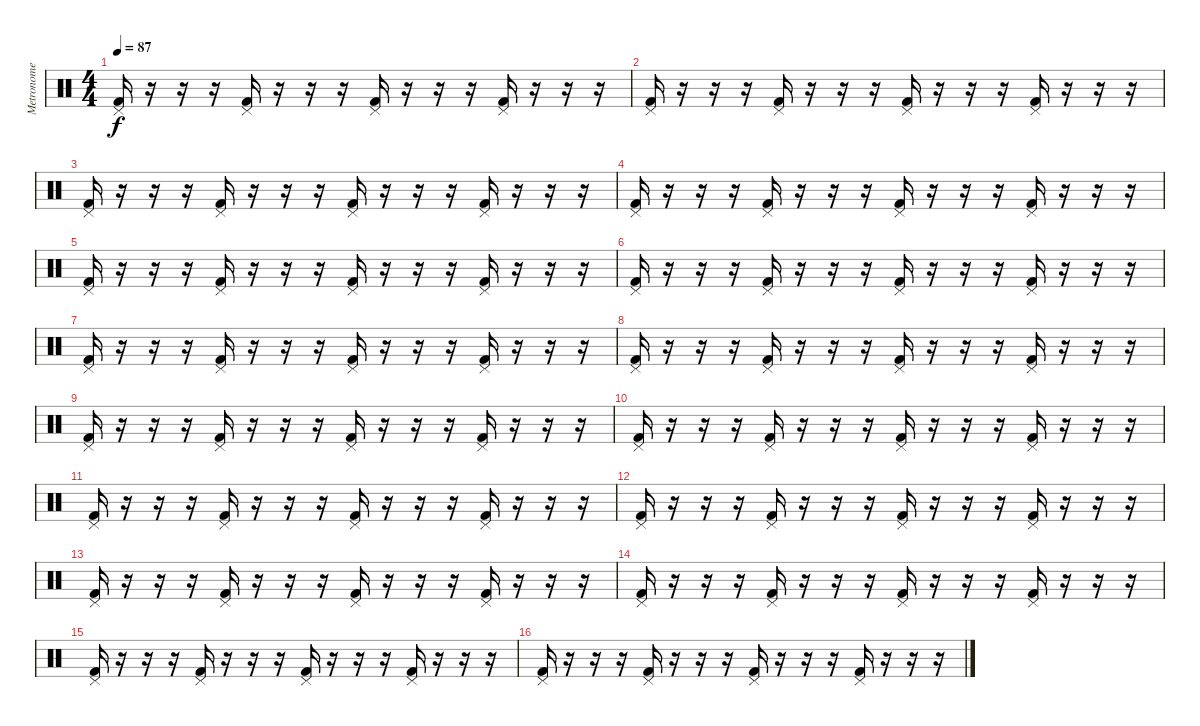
\track ("Metronome" "Metronome") {mute instrument percussion}
\staff {score}
\articulation defaults
\ts (4 4)
\tempo 87
\clef neutral
\ks c
("Pedal Hi-Hat (hit)" "Kick (hit) 2").16{dy f} r.16 r.16 r.16 ("Pedal Hi-Hat (hit)" "Kick (hit) 2").16 r.16 r.16 r.16 ("Pedal Hi-Hat (hit)" "Kick (hit) 2").16 r.16 r.16 r.16 ("Pedal Hi-Hat (hit)" "Kick (hit) 2").16 r.16 r.16 r.16 |
("Pedal Hi-Hat (hit)" "Kick (hit) 2").16 r.16 r.16 r.16 ("Pedal Hi-Hat (hit)" "Kick (hit) 2").16 r.16 r.16 r.16 ("Pedal Hi-Hat (hit)" "Kick (hit) 2").16 r.16 r.16 r.16 ("Pedal Hi-Hat (hit)" "Kick (hit) 2").16 r.16 r.16 r.16 |
("Pedal Hi-Hat (hit)" "Kick (hit) 2").16 r.16 r.16 r.16 ("Pedal Hi-Hat (hit)" "Kick (hit) 2").16 r.16 r.16 r.16 ("Pedal Hi-Hat (hit)" "Kick (hit) 2").16 r.16 r.16 r.16 ("Pedal Hi-Hat (hit)" "Kick (hit) 2").16 r.16 r.16 r.16 |
("Pedal Hi-Hat (hit)" "Kick (hit) 2").16 r.16 r.16 r.16 ("Pedal Hi-Hat (hit)" "Kick (hit) 2").16 r.16 r.16 r.16 ("Pedal Hi-Hat (hit)" "Kick (hit) 2").16 r.16 r.16 r.16 ("Pedal Hi-Hat (hit)" "Kick (hit) 2").16 r.16 r.16 r.16 |
("Pedal Hi-Hat (hit)" "Kick (hit) 2").16 r.16 r.16 r.16 ("Pedal Hi-Hat (hit)" "Kick (hit) 2").16 r.16 r.16 r.16 ("Pedal Hi-Hat (hit)" "Kick (hit) 2").16 r.16 r.16 r.16 ("Pedal Hi-Hat (hit)" "Kick (hit) 2").16 r.16 r.16 r.16 |
("Pedal Hi-Hat (hit)" "Kick (hit) 2").16 r.16 r.16 r.16 ("Pedal Hi-Hat (hit)" "Kick (hit) 2").16 r.16 r.16 r.16 ("Pedal Hi-Hat (hit)" "Kick (hit) 2").16 r.16 r.16 r.16 ("Pedal Hi-Hat (hit)" "Kick (hit) 2").16 r.16 r.16 r.16 |
("Pedal Hi-Hat (hit)" "Kick (hit) 2").16 r.16 r.16 r.16 ("Pedal Hi-Hat (hit)" "Kick (hit) 2").16 r.16 r.16 r.16 ("Pedal Hi-Hat (hit)" "Kick (hit) 2").16 r.16 r.16 r.16 ("Pedal Hi-Hat (hit)" "Kick (hit) 2").16 r.16 r.16 r.16 |
("Pedal Hi-Hat (hit)" "Kick (hit) 2").16 r.16 r.16 r.16 ("Pedal Hi-Hat (hit)" "Kick (hit) 2").16 r.16 r.16 r.16 ("Pedal Hi-Hat (hit)" "Kick (hit) 2").16 r.16 r.16 r.16 ("Pedal Hi-Hat (hit)" "Kick (hit) 2").16 r.16 r.16 r.16 |
("Pedal Hi-Hat (hit)" "Kick (hit) 2").16 r.16 r.16 r.16 ("Pedal Hi-Hat (hit)" "Kick (hit) 2").16 r.16 r.16 r.16 ("Pedal Hi-Hat (hit)" "Kick (hit) 2").16 r.16 r.16 r.16 ("Pedal Hi-Hat (hit)" "Kick (hit) 2").16 r.16 r.16 r.16 |
("Pedal Hi-Hat (hit)" "Kick (hit) 2").16 r.16 r.16 r.16 ("Pedal Hi-Hat (hit)" "Kick (hit) 2").16 r.16 r.16 r.16 ("Pedal Hi-Hat (hit)" "Kick (hit) 2").16 r.16 r.16 r.16 ("Pedal Hi-Hat (hit)" "Kick (hit) 2").16 r.16 r.16 r.16 |
("Pedal Hi-Hat (hit)" "Kick (hit) 2").16 r.16 r.16 r.16 ("Pedal Hi-Hat (hit)" "Kick (hit) 2").16 r.16 r.16 r.16 ("Pedal Hi-Hat (hit)" "Kick (hit) 2").16 r.16 r.16 r.16 ("Pedal Hi-Hat (hit)" "Kick (hit) 2").16 r.16 r.16 r.16 |
("Pedal Hi-Hat (hit)" "Kick (hit) 2").16 r.16 r.16 r.16 ("Pedal Hi-Hat (hit)" "Kick (hit) 2").16 r.16 r.16 r.16 ("Pedal Hi-Hat (hit)" "Kick (hit) 2").16 r.16 r.16 r.16 ("Pedal Hi-Hat (hit)" "Kick (hit) 2").16 r.16 r.16 r.16 |
("Pedal Hi-Hat (hit)" "Kick (hit) 2").16 r.16 r.16 r.16 ("Pedal Hi-Hat (hit)" "Kick (hit) 2").16 r.16 r.16 r.16 ("Pedal Hi-Hat (hit)" "Kick (hit) 2").16 r.16 r.16 r.16 ("Pedal Hi-Hat (hit)" "Kick (hit) 2").16 r.16 r.16 r.16 |
("Pedal Hi-Hat (hit)" "Kick (hit) 2").16 r.16 r.16 r.16 ("Pedal Hi-Hat (hit)" "Kick (hit) 2").16 r.16 r.16 r.16 ("Pedal Hi-Hat (hit)" "Kick (hit) 2").16 r.16 r.16 r.16 ("Pedal Hi-Hat (hit)" "Kick (hit) 2").16 r.16 r.16 r.16 |
("Pedal Hi-Hat (hit)" "Kick (hit) 2").16 r.16 r.16 r.16 ("Pedal Hi-Hat (hit)" "Kick (hit) 2").16 r.16 r.16 r.16 ("Pedal Hi-Hat (hit)" "Kick (hit) 2").16 r.16 r.16 r.16 ("Pedal Hi-Hat (hit)" "Kick (hit) 2").16 r.16 r.16 r.16 |
("Pedal Hi-Hat (hit)" "Kick (hit) 2").16 r.16 r.16 r.16 ("Pedal Hi-Hat (hit)" "Kick (hit) 2").16 r.16 r.16 r.16 ("Pedal Hi-Hat (hit)" "Kick (hit) 2").16 r.16 r.16 r.16 ("Pedal Hi-Hat (hit)" "Kick (hit) 2").16 r.16 r.16 r.16
